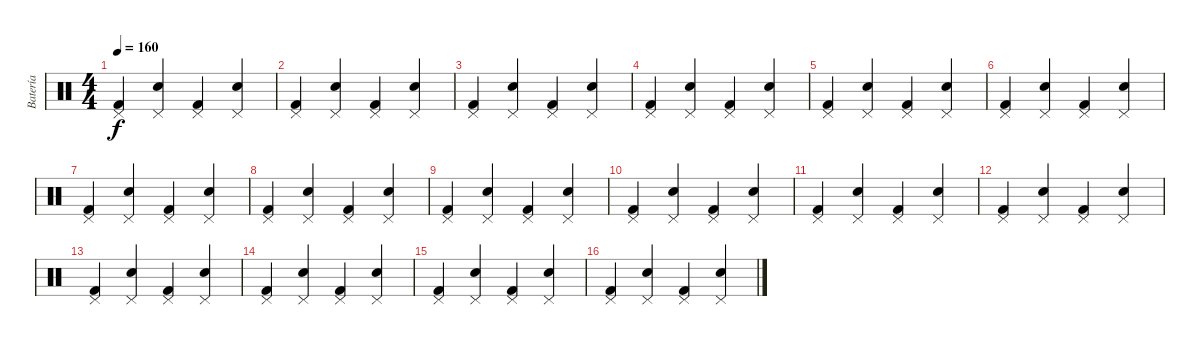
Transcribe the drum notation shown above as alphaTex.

\track ("Batería " "Batería ") {instrument percussion}
\staff {score}
\articulation defaults
\ts (4 4)
\tempo 160
\clef neutral
\ks c
("Kick (hit) 2" "Pedal Hi-Hat (hit)").4{dy f} ("Snare (hit) 2" "Pedal Hi-Hat (hit)").4 ("Kick (hit) 2" "Pedal Hi-Hat (hit)").4 ("Snare (hit) 2" "Pedal Hi-Hat (hit)").4 |
("Kick (hit) 2" "Pedal Hi-Hat (hit)").4 ("Snare (hit) 2" "Pedal Hi-Hat (hit)").4 ("Kick (hit) 2" "Pedal Hi-Hat (hit)").4 ("Snare (hit) 2" "Pedal Hi-Hat (hit)").4 |
("Kick (hit) 2" "Pedal Hi-Hat (hit)").4 ("Snare (hit) 2" "Pedal Hi-Hat (hit)").4 ("Kick (hit) 2" "Pedal Hi-Hat (hit)").4 ("Snare (hit) 2" "Pedal Hi-Hat (hit)").4 |
("Kick (hit) 2" "Pedal Hi-Hat (hit)").4 ("Snare (hit) 2" "Pedal Hi-Hat (hit)").4 ("Kick (hit) 2" "Pedal Hi-Hat (hit)").4 ("Snare (hit) 2" "Pedal Hi-Hat (hit)").4 |
("Kick (hit) 2" "Pedal Hi-Hat (hit)").4 ("Snare (hit) 2" "Pedal Hi-Hat (hit)").4 ("Kick (hit) 2" "Pedal Hi-Hat (hit)").4 ("Snare (hit) 2" "Pedal Hi-Hat (hit)").4 |
("Kick (hit) 2" "Pedal Hi-Hat (hit)").4 ("Snare (hit) 2" "Pedal Hi-Hat (hit)").4 ("Kick (hit) 2" "Pedal Hi-Hat (hit)").4 ("Snare (hit) 2" "Pedal Hi-Hat (hit)").4 |
("Kick (hit) 2" "Pedal Hi-Hat (hit)").4 ("Snare (hit) 2" "Pedal Hi-Hat (hit)").4 ("Kick (hit) 2" "Pedal Hi-Hat (hit)").4 ("Snare (hit) 2" "Pedal Hi-Hat (hit)").4 |
("Kick (hit) 2" "Pedal Hi-Hat (hit)").4 ("Snare (hit) 2" "Pedal Hi-Hat (hit)").4 ("Kick (hit) 2" "Pedal Hi-Hat (hit)").4 ("Snare (hit) 2" "Pedal Hi-Hat (hit)").4 |
("Kick (hit) 2" "Pedal Hi-Hat (hit)").4 ("Snare (hit) 2" "Pedal Hi-Hat (hit)").4 ("Kick (hit) 2" "Pedal Hi-Hat (hit)").4 ("Snare (hit) 2" "Pedal Hi-Hat (hit)").4 |
("Kick (hit) 2" "Pedal Hi-Hat (hit)").4 ("Snare (hit) 2" "Pedal Hi-Hat (hit)").4 ("Kick (hit) 2" "Pedal Hi-Hat (hit)").4 ("Snare (hit) 2" "Pedal Hi-Hat (hit)").4 |
("Kick (hit) 2" "Pedal Hi-Hat (hit)").4 ("Snare (hit) 2" "Pedal Hi-Hat (hit)").4 ("Kick (hit) 2" "Pedal Hi-Hat (hit)").4 ("Snare (hit) 2" "Pedal Hi-Hat (hit)").4 |
("Kick (hit) 2" "Pedal Hi-Hat (hit)").4 ("Snare (hit) 2" "Pedal Hi-Hat (hit)").4 ("Kick (hit) 2" "Pedal Hi-Hat (hit)").4 ("Snare (hit) 2" "Pedal Hi-Hat (hit)").4 |
("Kick (hit) 2" "Pedal Hi-Hat (hit)").4 ("Snare (hit) 2" "Pedal Hi-Hat (hit)").4 ("Kick (hit) 2" "Pedal Hi-Hat (hit)").4 ("Snare (hit) 2" "Pedal Hi-Hat (hit)").4 |
("Kick (hit) 2" "Pedal Hi-Hat (hit)").4 ("Snare (hit) 2" "Pedal Hi-Hat (hit)").4 ("Kick (hit) 2" "Pedal Hi-Hat (hit)").4 ("Snare (hit) 2" "Pedal Hi-Hat (hit)").4 |
("Kick (hit) 2" "Pedal Hi-Hat (hit)").4 ("Snare (hit) 2" "Pedal Hi-Hat (hit)").4 ("Kick (hit) 2" "Pedal Hi-Hat (hit)").4 ("Snare (hit) 2" "Pedal Hi-Hat (hit)").4 |
("Kick (hit) 2" "Pedal Hi-Hat (hit)").4 ("Snare (hit) 2" "Pedal Hi-Hat (hit)").4 ("Kick (hit) 2" "Pedal Hi-Hat (hit)").4 ("Snare (hit) 2" "Pedal Hi-Hat (hit)").4
